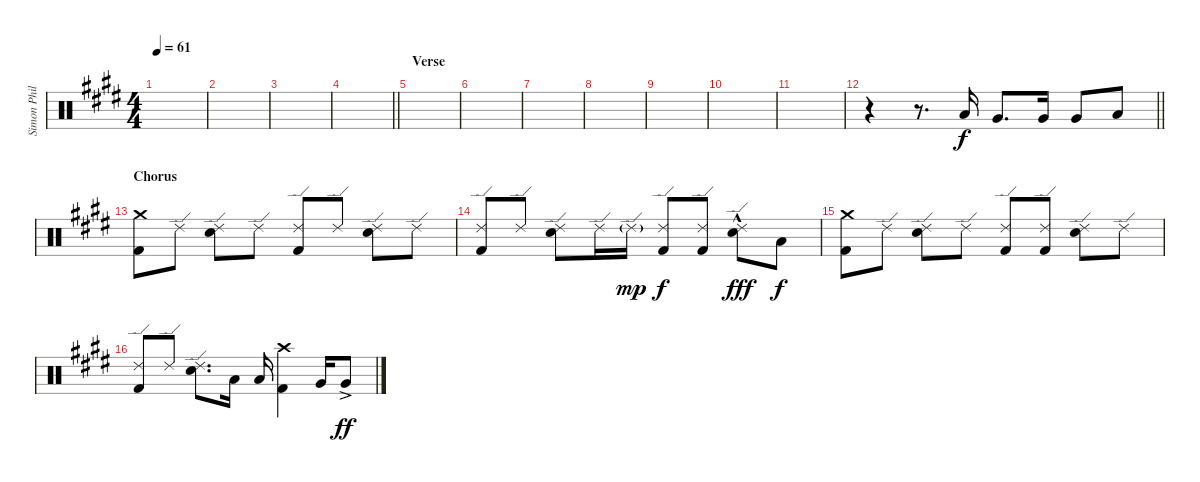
\track ("Simon Phillips" "Simon Phil") {instrument percussion}
\staff {score}
\articulation defaults
\ts (4 4)
\tempo 61
\clef neutral
\ks e
|
|
|
\barLineRight lightlight
|
\section ("" "Verse")
|
|
|
|
|
|
|
\barLineRight lightlight
r.4 r.8{d} "Low Tom (hit)".16 "Very Low Tom (hit)".8{d} "Very Low Tom (hit)".16 "Very Low Tom (hit)".8 "Low Floor Tom (hit)".8 |
\section ("" "Chorus")
("Crash medium (hit)" "Kick (hit) 2").8 "Ride (edge) 2".8 ("Ride (edge) 2" "Electric Snare (hit)").8 "Ride (edge) 2".8 ("Ride (edge) 2" "Kick (hit) 2").8 "Ride (edge) 2".8 ("Ride (edge) 2" "Electric Snare (hit)").8 "Ride (edge) 2".8 |
("Ride (edge) 2" "Kick (hit) 2").8 "Ride (edge) 2".8 ("Ride (edge) 2" "Electric Snare (hit)").8 "Ride (edge) 2".16 "Ride (edge) 2"{g}.16{dy mp} ("Ride (edge) 2" "Kick (hit) 2").8{dy f} ("Ride (edge) 2" "Kick (hit) 2").8 ("Ride (edge) 2"{hac} "Electric Snare (hit)").8{dy fff} "Low Floor Tom (hit)".8{dy f} |
("Crash medium (hit)" "Kick (hit) 2").8 "Ride (edge) 2".8 ("Ride (edge) 2" "Electric Snare (hit)").8 "Ride (edge) 2".8 ("Ride (edge) 2" "Kick (hit) 2").8 ("Ride (edge) 2" "Kick (hit) 2").8 ("Ride (edge) 2" "Electric Snare (hit)").8 "Ride (edge) 2".8 |
("Ride (edge) 2" "Kick (hit) 2").8 "Ride (edge) 2".8 ("Ride (edge) 2" "Electric Snare (hit)").8{d} "Low Tom (hit)".16 "Low Tom (hit)".16 ("Crash high (hit)" "Kick (hit) 2").4 "Very Low Tom (hit)".16 "Very Low Tom (hit)"{ac}.8{dy ff}
